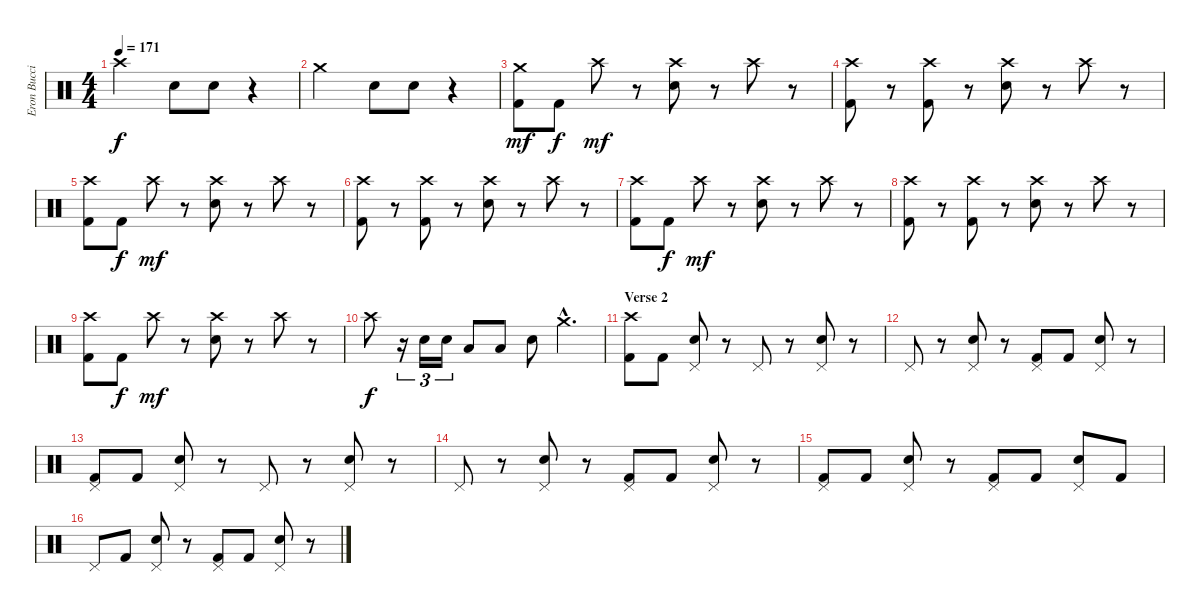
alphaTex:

\track ("Eron Bucciarelli (Drums)" "Eron Bucci") {instrument percussion}
\staff {score}
\articulation defaults
\ts (4 4)
\tempo 171
\clef neutral
\ks c "Crash high (hit)".2{dy f} "Snare (hit) 2".8 "Snare (hit) 2".8
r.4 |
"Crash medium (hit)".2 "Snare (hit) 2".8 "Snare (hit) 2".8 r.4 |
("Crash medium (hit)" "Kick (hit) 2").8{dy mf} "Kick (hit) 2".8{dy f} "Crash high (hit)".8{dy mf} r.8 ("Crash high (hit)" "Snare (hit) 2").8 r.8 "Crash high (hit)".8 r.8 |
("Crash high (hit)" "Kick (hit) 2").8 r.8 ("Crash high (hit)" "Kick (hit) 2").8 r.8 ("Crash high (hit)" "Snare (hit) 2").8 r.8 "Crash high (hit)".8 r.8 |
("Crash high (hit)" "Kick (hit) 2").8 "Kick (hit) 2".8{dy f} "Crash high (hit)".8{dy mf} r.8 ("Crash high (hit)" "Snare (hit) 2").8 r.8 "Crash high (hit)".8 r.8 |
("Crash high (hit)" "Kick (hit) 2").8 r.8 ("Crash high (hit)" "Kick (hit) 2").8 r.8 ("Crash high (hit)" "Snare (hit) 2").8 r.8 "Crash high (hit)".8 r.8 |
("Crash high (hit)" "Kick (hit) 2").8 "Kick (hit) 2".8{dy f} "Crash high (hit)".8{dy mf} r.8 ("Crash high (hit)" "Snare (hit) 2").8 r.8 "Crash high (hit)".8 r.8 |
("Crash high (hit)" "Kick (hit) 2").8 r.8 ("Crash high (hit)" "Kick (hit) 2").8 r.8 ("Crash high (hit)" "Snare (hit) 2").8 r.8 "Crash high (hit)".8 r.8 |
("Crash high (hit)" "Kick (hit) 2").8 "Kick (hit) 2".8{dy f} "Crash high (hit)".8{dy mf} r.8 ("Crash high (hit)" "Snare (hit) 2").8 r.8 "Crash high (hit)".8 r.8 |
"Crash high (hit)".8{dy f} r.16{tu (3 2)} "Snare (hit) 2".16{tu (3 2)} "Snare (hit) 2".16{tu (3 2)} "Low Tom (hit)".8 "Low Floor Tom (hit)".8 "Snare (hit) 2".8 "Crash medium (hit)"{hac}.4{d} |
\section ("" "Verse 2")
("Crash high (hit)" "Kick (hit) 2").8 "Kick (hit) 2".8 ("Pedal Hi-Hat (hit)" "Snare (hit) 2").8 r.8 "Pedal Hi-Hat (hit)".8 r.8 ("Pedal Hi-Hat (hit)" "Snare (hit) 2").8 r.8 |
"Pedal Hi-Hat (hit)".8 r.8 ("Pedal Hi-Hat (hit)" "Snare (hit) 2").8 r.8 ("Pedal Hi-Hat (hit)" "Kick (hit) 2").8 "Kick (hit) 2".8 ("Pedal Hi-Hat (hit)" "Snare (hit) 2").8 r.8 |
("Pedal Hi-Hat (hit)" "Kick (hit) 2").8 "Kick (hit) 2".8 ("Pedal Hi-Hat (hit)" "Snare (hit) 2").8 r.8 "Pedal Hi-Hat (hit)".8 r.8 ("Pedal Hi-Hat (hit)" "Snare (hit) 2").8 r.8 |
"Pedal Hi-Hat (hit)".8 r.8 ("Pedal Hi-Hat (hit)" "Snare (hit) 2").8 r.8 ("Pedal Hi-Hat (hit)" "Kick (hit) 2").8 "Kick (hit) 2".8 ("Pedal Hi-Hat (hit)" "Snare (hit) 2").8 r.8 |
("Pedal Hi-Hat (hit)" "Kick (hit) 2").8 "Kick (hit) 2".8 ("Pedal Hi-Hat (hit)" "Snare (hit) 2").8 r.8 ("Pedal Hi-Hat (hit)" "Kick (hit) 2").8 "Kick (hit) 2".8 ("Pedal Hi-Hat (hit)" "Snare (hit) 2").8 "Kick (hit) 2".8 |
"Pedal Hi-Hat (hit)".8 "Kick (hit) 2".8 ("Pedal Hi-Hat (hit)" "Snare (hit) 2").8 r.8 ("Pedal Hi-Hat (hit)" "Kick (hit) 2").8 "Kick (hit) 2".8 ("Pedal Hi-Hat (hit)" "Snare (hit) 2").8 r.8
